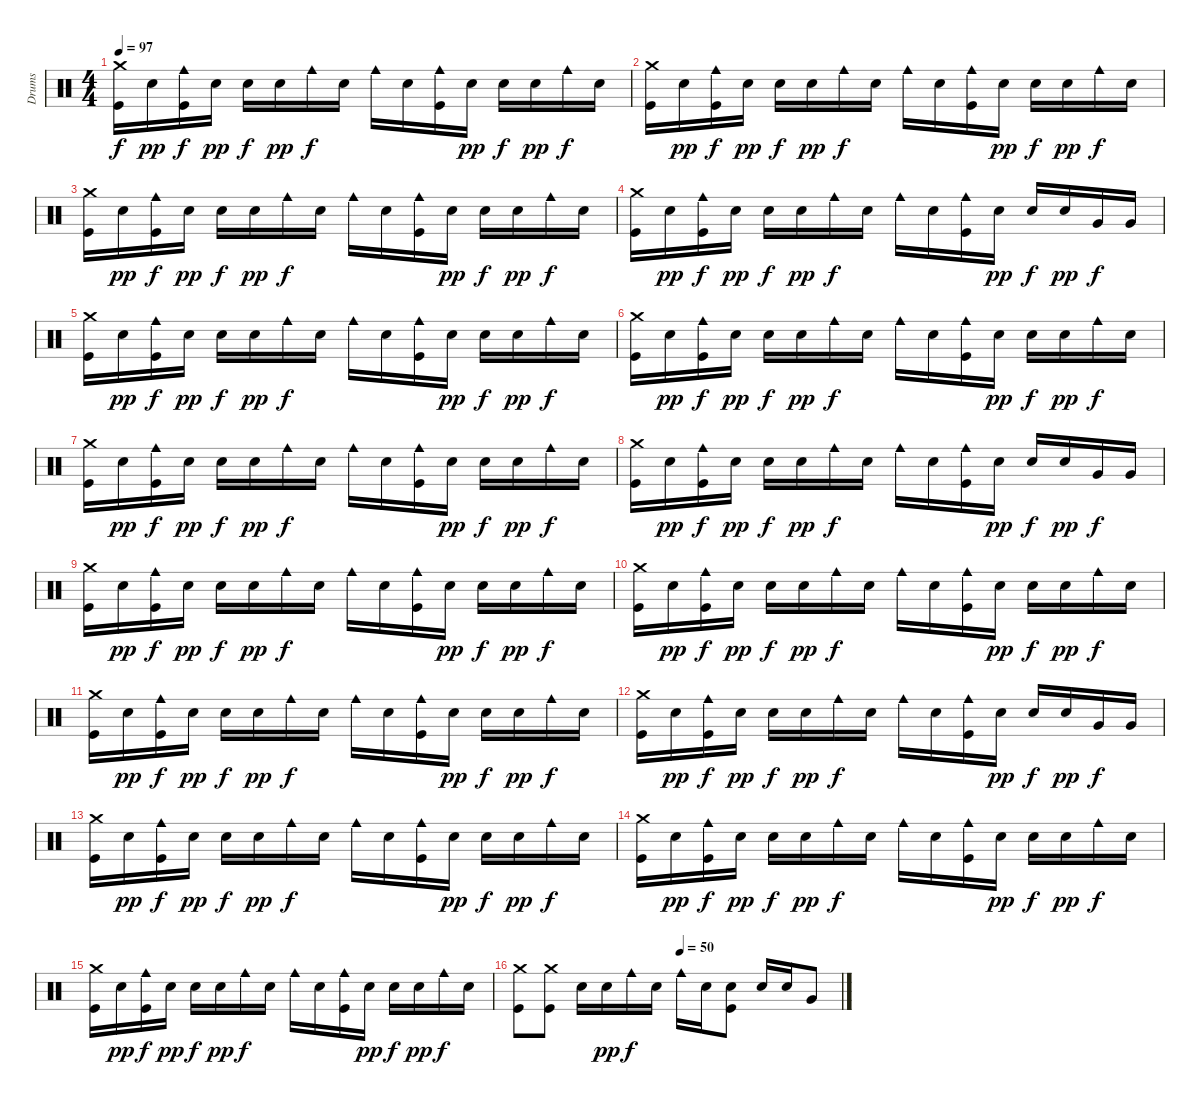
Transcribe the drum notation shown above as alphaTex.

\track ("Drums" "Drums") {instrument percussion}
\staff {score}
\articulation defaults
\ts (4 4)
\tempo 97
\clef neutral
\ks c
("Crash medium (hit)" "Kick (hit)").16{dy f} "Electric Snare (hit)".16{dy pp} ("Cowbell medium (hit)" "Kick (hit)").16{dy f} "Electric Snare (hit)".16{dy pp} "Electric Snare (hit)".16{dy f} "Electric Snare (hit)".16{dy pp} "Cowbell medium (hit)".16{dy f} "Electric Snare (hit)".16 "Cowbell medium (hit)".16 "Electric Snare (hit)".16 ("Cowbell medium (hit)" "Kick (hit)").16 "Electric Snare (hit)".16{dy pp} "Electric Snare (hit)".16{dy f} "Electric Snare (hit)".16{dy pp} "Cowbell medium (hit)".16{dy f} "Electric Snare (hit)".16 |
("Crash medium (hit)" "Kick (hit)").16 "Electric Snare (hit)".16{dy pp} ("Cowbell medium (hit)" "Kick (hit)").16{dy f} "Electric Snare (hit)".16{dy pp} "Electric Snare (hit)".16{dy f} "Electric Snare (hit)".16{dy pp} "Cowbell medium (hit)".16{dy f} "Electric Snare (hit)".16 "Cowbell medium (hit)".16 "Electric Snare (hit)".16 ("Cowbell medium (hit)" "Kick (hit)").16 "Electric Snare (hit)".16{dy pp} "Electric Snare (hit)".16{dy f} "Electric Snare (hit)".16{dy pp} "Cowbell medium (hit)".16{dy f} "Electric Snare (hit)".16 |
("Crash medium (hit)" "Kick (hit)").16 "Electric Snare (hit)".16{dy pp} ("Cowbell medium (hit)" "Kick (hit)").16{dy f} "Electric Snare (hit)".16{dy pp} "Electric Snare (hit)".16{dy f} "Electric Snare (hit)".16{dy pp} "Cowbell medium (hit)".16{dy f} "Electric Snare (hit)".16 "Cowbell medium (hit)".16 "Electric Snare (hit)".16 ("Cowbell medium (hit)" "Kick (hit)").16 "Electric Snare (hit)".16{dy pp} "Electric Snare (hit)".16{dy f} "Electric Snare (hit)".16{dy pp} "Cowbell medium (hit)".16{dy f} "Electric Snare (hit)".16 |
("Crash medium (hit)" "Kick (hit)").16 "Electric Snare (hit)".16{dy pp} ("Cowbell medium (hit)" "Kick (hit)").16{dy f} "Electric Snare (hit)".16{dy pp} "Electric Snare (hit)".16{dy f} "Electric Snare (hit)".16{dy pp} "Cowbell medium (hit)".16{dy f} "Electric Snare (hit)".16 "Cowbell medium (hit)".16 "Electric Snare (hit)".16 ("Cowbell medium (hit)" "Kick (hit)").16 "Electric Snare (hit)".16{dy pp} "Electric Snare (hit)".16{dy f} "Electric Snare (hit)".16{dy pp} "Very Low Tom (hit)".16{dy f} "Very Low Tom (hit)".16 |
("Crash medium (hit)" "Kick (hit)").16 "Electric Snare (hit)".16{dy pp} ("Cowbell medium (hit)" "Kick (hit)").16{dy f} "Electric Snare (hit)".16{dy pp} "Electric Snare (hit)".16{dy f} "Electric Snare (hit)".16{dy pp} "Cowbell medium (hit)".16{dy f} "Electric Snare (hit)".16 "Cowbell medium (hit)".16 "Electric Snare (hit)".16 ("Cowbell medium (hit)" "Kick (hit)").16 "Electric Snare (hit)".16{dy pp} "Electric Snare (hit)".16{dy f} "Electric Snare (hit)".16{dy pp} "Cowbell medium (hit)".16{dy f} "Electric Snare (hit)".16 |
("Crash medium (hit)" "Kick (hit)").16 "Electric Snare (hit)".16{dy pp} ("Cowbell medium (hit)" "Kick (hit)").16{dy f} "Electric Snare (hit)".16{dy pp} "Electric Snare (hit)".16{dy f} "Electric Snare (hit)".16{dy pp} "Cowbell medium (hit)".16{dy f} "Electric Snare (hit)".16 "Cowbell medium (hit)".16 "Electric Snare (hit)".16 ("Cowbell medium (hit)" "Kick (hit)").16 "Electric Snare (hit)".16{dy pp} "Electric Snare (hit)".16{dy f} "Electric Snare (hit)".16{dy pp} "Cowbell medium (hit)".16{dy f} "Electric Snare (hit)".16 |
("Crash medium (hit)" "Kick (hit)").16 "Electric Snare (hit)".16{dy pp} ("Cowbell medium (hit)" "Kick (hit)").16{dy f} "Electric Snare (hit)".16{dy pp} "Electric Snare (hit)".16{dy f} "Electric Snare (hit)".16{dy pp} "Cowbell medium (hit)".16{dy f} "Electric Snare (hit)".16 "Cowbell medium (hit)".16 "Electric Snare (hit)".16 ("Cowbell medium (hit)" "Kick (hit)").16 "Electric Snare (hit)".16{dy pp} "Electric Snare (hit)".16{dy f} "Electric Snare (hit)".16{dy pp} "Cowbell medium (hit)".16{dy f} "Electric Snare (hit)".16 |
("Crash medium (hit)" "Kick (hit)").16 "Electric Snare (hit)".16{dy pp} ("Cowbell medium (hit)" "Kick (hit)").16{dy f} "Electric Snare (hit)".16{dy pp} "Electric Snare (hit)".16{dy f} "Electric Snare (hit)".16{dy pp} "Cowbell medium (hit)".16{dy f} "Electric Snare (hit)".16 "Cowbell medium (hit)".16 "Electric Snare (hit)".16 ("Cowbell medium (hit)" "Kick (hit)").16 "Electric Snare (hit)".16{dy pp} "Electric Snare (hit)".16{dy f} "Electric Snare (hit)".16{dy pp} "Very Low Tom (hit)".16{dy f} "Very Low Tom (hit)".16 |
("Crash medium (hit)" "Kick (hit)").16 "Electric Snare (hit)".16{dy pp} ("Cowbell medium (hit)" "Kick (hit)").16{dy f} "Electric Snare (hit)".16{dy pp} "Electric Snare (hit)".16{dy f} "Electric Snare (hit)".16{dy pp} "Cowbell medium (hit)".16{dy f} "Electric Snare (hit)".16 "Cowbell medium (hit)".16 "Electric Snare (hit)".16 ("Cowbell medium (hit)" "Kick (hit)").16 "Electric Snare (hit)".16{dy pp} "Electric Snare (hit)".16{dy f} "Electric Snare (hit)".16{dy pp} "Cowbell medium (hit)".16{dy f} "Electric Snare (hit)".16 |
("Crash medium (hit)" "Kick (hit)").16 "Electric Snare (hit)".16{dy pp} ("Cowbell medium (hit)" "Kick (hit)").16{dy f} "Electric Snare (hit)".16{dy pp} "Electric Snare (hit)".16{dy f} "Electric Snare (hit)".16{dy pp} "Cowbell medium (hit)".16{dy f} "Electric Snare (hit)".16 "Cowbell medium (hit)".16 "Electric Snare (hit)".16 ("Cowbell medium (hit)" "Kick (hit)").16 "Electric Snare (hit)".16{dy pp} "Electric Snare (hit)".16{dy f} "Electric Snare (hit)".16{dy pp} "Cowbell medium (hit)".16{dy f} "Electric Snare (hit)".16 |
("Crash medium (hit)" "Kick (hit)").16 "Electric Snare (hit)".16{dy pp} ("Cowbell medium (hit)" "Kick (hit)").16{dy f} "Electric Snare (hit)".16{dy pp} "Electric Snare (hit)".16{dy f} "Electric Snare (hit)".16{dy pp} "Cowbell medium (hit)".16{dy f} "Electric Snare (hit)".16 "Cowbell medium (hit)".16 "Electric Snare (hit)".16 ("Cowbell medium (hit)" "Kick (hit)").16 "Electric Snare (hit)".16{dy pp} "Electric Snare (hit)".16{dy f} "Electric Snare (hit)".16{dy pp} "Cowbell medium (hit)".16{dy f} "Electric Snare (hit)".16 |
("Crash medium (hit)" "Kick (hit)").16 "Electric Snare (hit)".16{dy pp} ("Cowbell medium (hit)" "Kick (hit)").16{dy f} "Electric Snare (hit)".16{dy pp} "Electric Snare (hit)".16{dy f} "Electric Snare (hit)".16{dy pp} "Cowbell medium (hit)".16{dy f} "Electric Snare (hit)".16 "Cowbell medium (hit)".16 "Electric Snare (hit)".16 ("Cowbell medium (hit)" "Kick (hit)").16 "Electric Snare (hit)".16{dy pp} "Electric Snare (hit)".16{dy f} "Electric Snare (hit)".16{dy pp} "Very Low Tom (hit)".16{dy f} "Very Low Tom (hit)".16 |
("Crash medium (hit)" "Kick (hit)").16 "Electric Snare (hit)".16{dy pp} ("Cowbell medium (hit)" "Kick (hit)").16{dy f} "Electric Snare (hit)".16{dy pp} "Electric Snare (hit)".16{dy f} "Electric Snare (hit)".16{dy pp} "Cowbell medium (hit)".16{dy f} "Electric Snare (hit)".16 "Cowbell medium (hit)".16 "Electric Snare (hit)".16 ("Cowbell medium (hit)" "Kick (hit)").16 "Electric Snare (hit)".16{dy pp} "Electric Snare (hit)".16{dy f} "Electric Snare (hit)".16{dy pp} "Cowbell medium (hit)".16{dy f} "Electric Snare (hit)".16 |
("Crash medium (hit)" "Kick (hit)").16 "Electric Snare (hit)".16{dy pp} ("Cowbell medium (hit)" "Kick (hit)").16{dy f} "Electric Snare (hit)".16{dy pp} "Electric Snare (hit)".16{dy f} "Electric Snare (hit)".16{dy pp} "Cowbell medium (hit)".16{dy f} "Electric Snare (hit)".16 "Cowbell medium (hit)".16 "Electric Snare (hit)".16 ("Cowbell medium (hit)" "Kick (hit)").16 "Electric Snare (hit)".16{dy pp} "Electric Snare (hit)".16{dy f} "Electric Snare (hit)".16{dy pp} "Cowbell medium (hit)".16{dy f} "Electric Snare (hit)".16 |
("Crash medium (hit)" "Kick (hit)").16 "Electric Snare (hit)".16{dy pp} ("Cowbell medium (hit)" "Kick (hit)").16{dy f} "Electric Snare (hit)".16{dy pp} "Electric Snare (hit)".16{dy f} "Electric Snare (hit)".16{dy pp} "Cowbell medium (hit)".16{dy f} "Electric Snare (hit)".16 "Cowbell medium (hit)".16 "Electric Snare (hit)".16 ("Cowbell medium (hit)" "Kick (hit)").16 "Electric Snare (hit)".16{dy pp} "Electric Snare (hit)".16{dy f} "Electric Snare (hit)".16{dy pp} "Cowbell medium (hit)".16{dy f} "Electric Snare (hit)".16 |
\tempo (50 0.5)
("Crash medium (hit)" "Kick (hit)").8 ("Crash medium (hit)" "Kick (hit)").8 "Electric Snare (hit)".16 "Electric Snare (hit)".16{dy pp} "Cowbell medium (hit)".16{dy f} "Electric Snare (hit)".16 "Cowbell medium (hit)".16 "Electric Snare (hit)".16 ("Electric Snare (hit)" "Kick (hit)").8 "Electric Snare (hit)".16 "Electric Snare (hit)".16 "Very Low Tom (hit)".8
